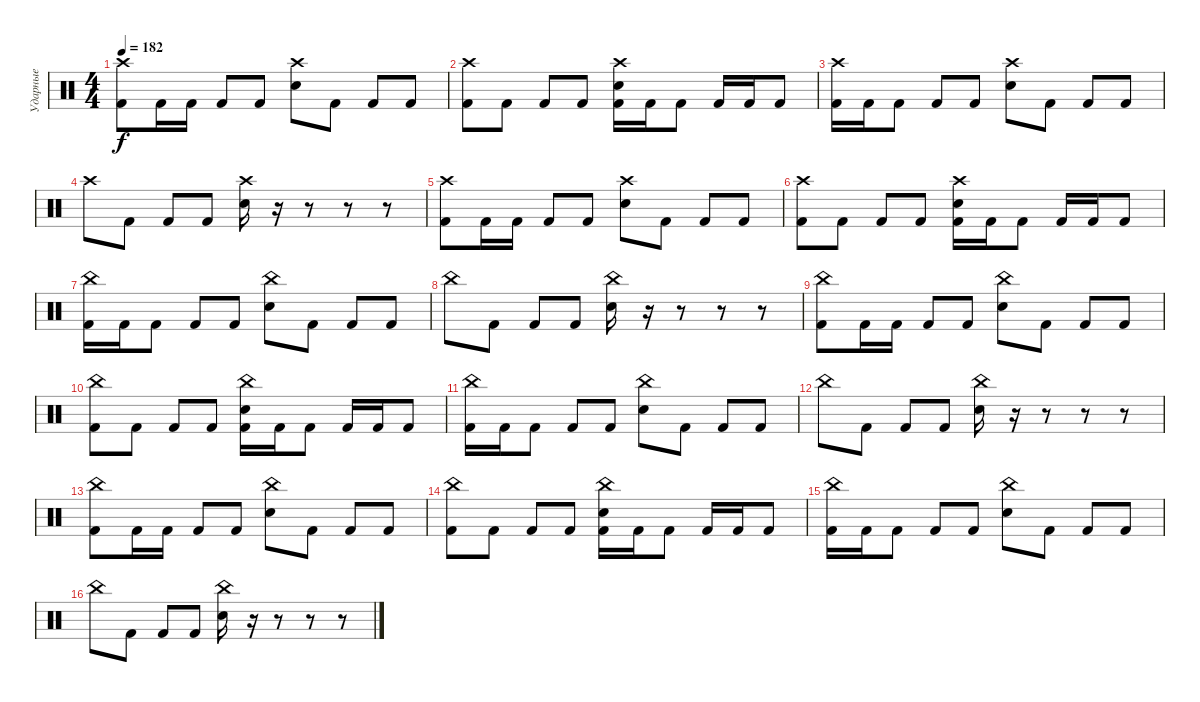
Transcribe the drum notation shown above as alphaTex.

\track ("Ударные" "Ударные") {instrument percussion}
\staff {score}
\articulation defaults
\ts (4 4)
\tempo 182
\clef neutral
\ks c
("Crash high (hit)" "Kick (hit) 2").8{dy f} "Kick (hit) 2".16 "Kick (hit) 2".16 "Kick (hit) 2".8 "Kick (hit) 2".8 ("Crash high (hit)" "Electric Snare (hit)").8 "Kick (hit) 2".8 "Kick (hit) 2".8 "Kick (hit) 2".8 |
("Crash high (hit)" "Kick (hit) 2").8 "Kick (hit) 2".8 "Kick (hit) 2".8 "Kick (hit) 2".8 ("Crash high (hit)" "Electric Snare (hit)" "Kick (hit) 2").16 "Kick (hit) 2".16 "Kick (hit) 2".8 "Kick (hit) 2".16 "Kick (hit) 2".16 "Kick (hit) 2".8 |
("Crash high (hit)" "Kick (hit) 2").16 "Kick (hit) 2".16 "Kick (hit) 2".8 "Kick (hit) 2".8 "Kick (hit) 2".8 ("Crash high (hit)" "Electric Snare (hit)").8 "Kick (hit) 2".8 "Kick (hit) 2".8 "Kick (hit) 2".8 |
"Crash high (hit)".8 "Kick (hit) 2".8 "Kick (hit) 2".8 "Kick (hit) 2".8 ("Crash high (hit)" "Electric Snare (hit)").16 r.16 r.8 r.8 r.8 |
("Crash high (hit)" "Kick (hit) 2").8 "Kick (hit) 2".16 "Kick (hit) 2".16 "Kick (hit) 2".8 "Kick (hit) 2".8 ("Crash high (hit)" "Electric Snare (hit)").8 "Kick (hit) 2".8 "Kick (hit) 2".8 "Kick (hit) 2".8 |
("Crash high (hit)" "Kick (hit) 2").8 "Kick (hit) 2".8 "Kick (hit) 2".8 "Kick (hit) 2".8 ("Crash high (hit)" "Electric Snare (hit)" "Kick (hit) 2").16 "Kick (hit) 2".16 "Kick (hit) 2".8 "Kick (hit) 2".16 "Kick (hit) 2".16 "Kick (hit) 2".8 |
("China (hit)" "Kick (hit) 2").16 "Kick (hit) 2".16 "Kick (hit) 2".8 "Kick (hit) 2".8 "Kick (hit) 2".8 ("China (hit)" "Electric Snare (hit)").8 "Kick (hit) 2".8 "Kick (hit) 2".8 "Kick (hit) 2".8 |
"China (hit)".8 "Kick (hit) 2".8 "Kick (hit) 2".8 "Kick (hit) 2".8 ("China (hit)" "Electric Snare (hit)").16 r.16 r.8 r.8 r.8 |
("China (hit)" "Kick (hit) 2").8 "Kick (hit) 2".16 "Kick (hit) 2".16 "Kick (hit) 2".8 "Kick (hit) 2".8 ("China (hit)" "Electric Snare (hit)").8 "Kick (hit) 2".8 "Kick (hit) 2".8 "Kick (hit) 2".8 |
("China (hit)" "Kick (hit) 2").8 "Kick (hit) 2".8 "Kick (hit) 2".8 "Kick (hit) 2".8 ("China (hit)" "Electric Snare (hit)" "Kick (hit) 2").16 "Kick (hit) 2".16 "Kick (hit) 2".8 "Kick (hit) 2".16 "Kick (hit) 2".16 "Kick (hit) 2".8 |
("China (hit)" "Kick (hit) 2").16 "Kick (hit) 2".16 "Kick (hit) 2".8 "Kick (hit) 2".8 "Kick (hit) 2".8 ("China (hit)" "Electric Snare (hit)").8 "Kick (hit) 2".8 "Kick (hit) 2".8 "Kick (hit) 2".8 |
"China (hit)".8 "Kick (hit) 2".8 "Kick (hit) 2".8 "Kick (hit) 2".8 ("China (hit)" "Electric Snare (hit)").16 r.16 r.8 r.8 r.8 |
("China (hit)" "Kick (hit) 2").8 "Kick (hit) 2".16 "Kick (hit) 2".16 "Kick (hit) 2".8 "Kick (hit) 2".8 ("China (hit)" "Electric Snare (hit)").8 "Kick (hit) 2".8 "Kick (hit) 2".8 "Kick (hit) 2".8 |
("China (hit)" "Kick (hit) 2").8 "Kick (hit) 2".8 "Kick (hit) 2".8 "Kick (hit) 2".8 ("China (hit)" "Electric Snare (hit)" "Kick (hit) 2").16 "Kick (hit) 2".16 "Kick (hit) 2".8 "Kick (hit) 2".16 "Kick (hit) 2".16 "Kick (hit) 2".8 |
("China (hit)" "Kick (hit) 2").16 "Kick (hit) 2".16 "Kick (hit) 2".8 "Kick (hit) 2".8 "Kick (hit) 2".8 ("China (hit)" "Electric Snare (hit)").8 "Kick (hit) 2".8 "Kick (hit) 2".8 "Kick (hit) 2".8 |
"China (hit)".8 "Kick (hit) 2".8 "Kick (hit) 2".8 "Kick (hit) 2".8 ("China (hit)" "Electric Snare (hit)").16 r.16 r.8 r.8 r.8
